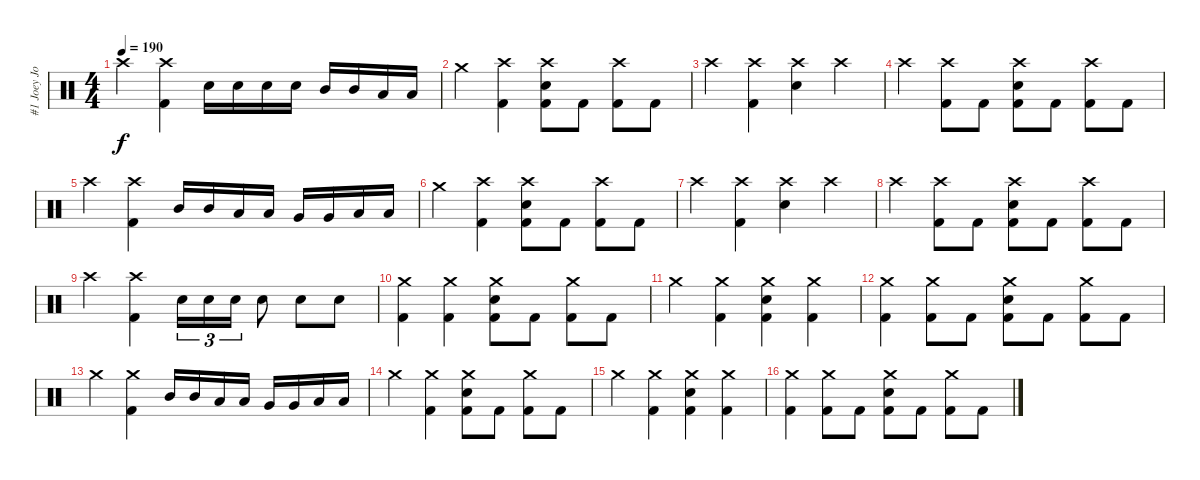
\track ("#1 Joey Jordison" "#1 Joey Jo") {instrument percussion}
\staff {score}
\articulation defaults
\ts (4 4)
\tempo 190
\clef neutral
\ks c "Crash high (hit)".4{dy f}
("Crash high (hit)" "Kick (hit) 2").4 "Electric Snare (hit)".16 "Electric Snare (hit)".16 "Electric Snare (hit)".16 "Electric Snare (hit)".16 "Mid Tom (hit)".16 "Mid Tom (hit)".16 "Low Tom (hit)".16 "Low Tom (hit)".16 |
"Crash medium (hit)".4 ("Crash high (hit)" "Kick (hit) 2").4 ("Crash high (hit)" "Electric Snare (hit)" "Kick (hit) 2").8 "Kick (hit) 2".8 ("Crash high (hit)" "Kick (hit) 2").8 "Kick (hit) 2".8 |
"Crash high (hit)".4 ("Crash high (hit)" "Kick (hit) 2").4 ("Crash high (hit)" "Electric Snare (hit)").4 "Crash high (hit)".4 |
"Crash high (hit)".4 ("Crash high (hit)" "Kick (hit) 2").8 "Kick (hit) 2".8 ("Crash high (hit)" "Electric Snare (hit)" "Kick (hit) 2").8 "Kick (hit) 2".8 ("Crash high (hit)" "Kick (hit) 2").8 "Kick (hit) 2".8 |
"Crash high (hit)".4 ("Crash high (hit)" "Kick (hit) 2").4 "Mid Tom (hit)".16 "Mid Tom (hit)".16 "Low Tom (hit)".16 "Low Tom (hit)".16 "Very Low Tom (hit)".16 "Very Low Tom (hit)".16 "Low Floor Tom (hit)".16 "Low Floor Tom (hit)".16 |
"Crash medium (hit)".4 ("Crash high (hit)" "Kick (hit) 2").4 ("Crash high (hit)" "Electric Snare (hit)" "Kick (hit) 2").8 "Kick (hit) 2".8 ("Crash high (hit)" "Kick (hit) 2").8 "Kick (hit) 2".8 |
"Crash high (hit)".4 ("Crash high (hit)" "Kick (hit) 2").4 ("Crash high (hit)" "Electric Snare (hit)").4 "Crash high (hit)".4 |
"Crash high (hit)".4 ("Crash high (hit)" "Kick (hit) 2").8 "Kick (hit) 2".8 ("Crash high (hit)" "Electric Snare (hit)" "Kick (hit) 2").8 "Kick (hit) 2".8 ("Crash high (hit)" "Kick (hit) 2").8 "Kick (hit) 2".8 |
"Crash high (hit)".4 ("Crash high (hit)" "Kick (hit) 2").4 "Electric Snare (hit)".16{tu (3 2)} "Electric Snare (hit)".16{tu (3 2)} "Electric Snare (hit)".16{tu (3 2)} "Electric Snare (hit)".8 "Electric Snare (hit)".8 "Electric Snare (hit)".8 |
("Crash medium (hit)" "Kick (hit) 2").4 ("Crash medium (hit)" "Kick (hit) 2").4 ("Crash medium (hit)" "Electric Snare (hit)" "Kick (hit) 2").8 "Kick (hit) 2".8 ("Crash medium (hit)" "Kick (hit) 2").8 "Kick (hit) 2".8 |
"Crash medium (hit)".4 ("Crash medium (hit)" "Kick (hit) 2").4 ("Crash medium (hit)" "Electric Snare (hit)" "Kick (hit) 2").4 ("Crash medium (hit)" "Kick (hit) 2").4 |
("Crash medium (hit)" "Kick (hit) 2").4 ("Crash medium (hit)" "Kick (hit) 2").8 "Kick (hit) 2".8 ("Crash medium (hit)" "Electric Snare (hit)" "Kick (hit) 2").8 "Kick (hit) 2".8 ("Crash medium (hit)" "Kick (hit) 2").8 "Kick (hit) 2".8 |
"Crash medium (hit)".4 ("Crash medium (hit)" "Kick (hit) 2").4 "Mid Tom (hit)".16 "Mid Tom (hit)".16 "Low Tom (hit)".16 "Low Tom (hit)".16 "Very Low Tom (hit)".16 "Very Low Tom (hit)".16 "Low Floor Tom (hit)".16 "Low Floor Tom (hit)".16 |
"Crash medium (hit)".4 ("Crash medium (hit)" "Kick (hit) 2").4 ("Crash medium (hit)" "Electric Snare (hit)" "Kick (hit) 2").8 "Kick (hit) 2".8 ("Crash medium (hit)" "Kick (hit) 2").8 "Kick (hit) 2".8 |
"Crash medium (hit)".4 ("Crash medium (hit)" "Kick (hit) 2").4 ("Crash medium (hit)" "Electric Snare (hit)" "Kick (hit) 2").4 ("Crash medium (hit)" "Kick (hit) 2").4 |
("Crash medium (hit)" "Kick (hit) 2").4 ("Crash medium (hit)" "Kick (hit) 2").8 "Kick (hit) 2".8 ("Crash medium (hit)" "Electric Snare (hit)" "Kick (hit) 2").8 "Kick (hit) 2".8 ("Crash medium (hit)" "Kick (hit) 2").8 "Kick (hit) 2".8
